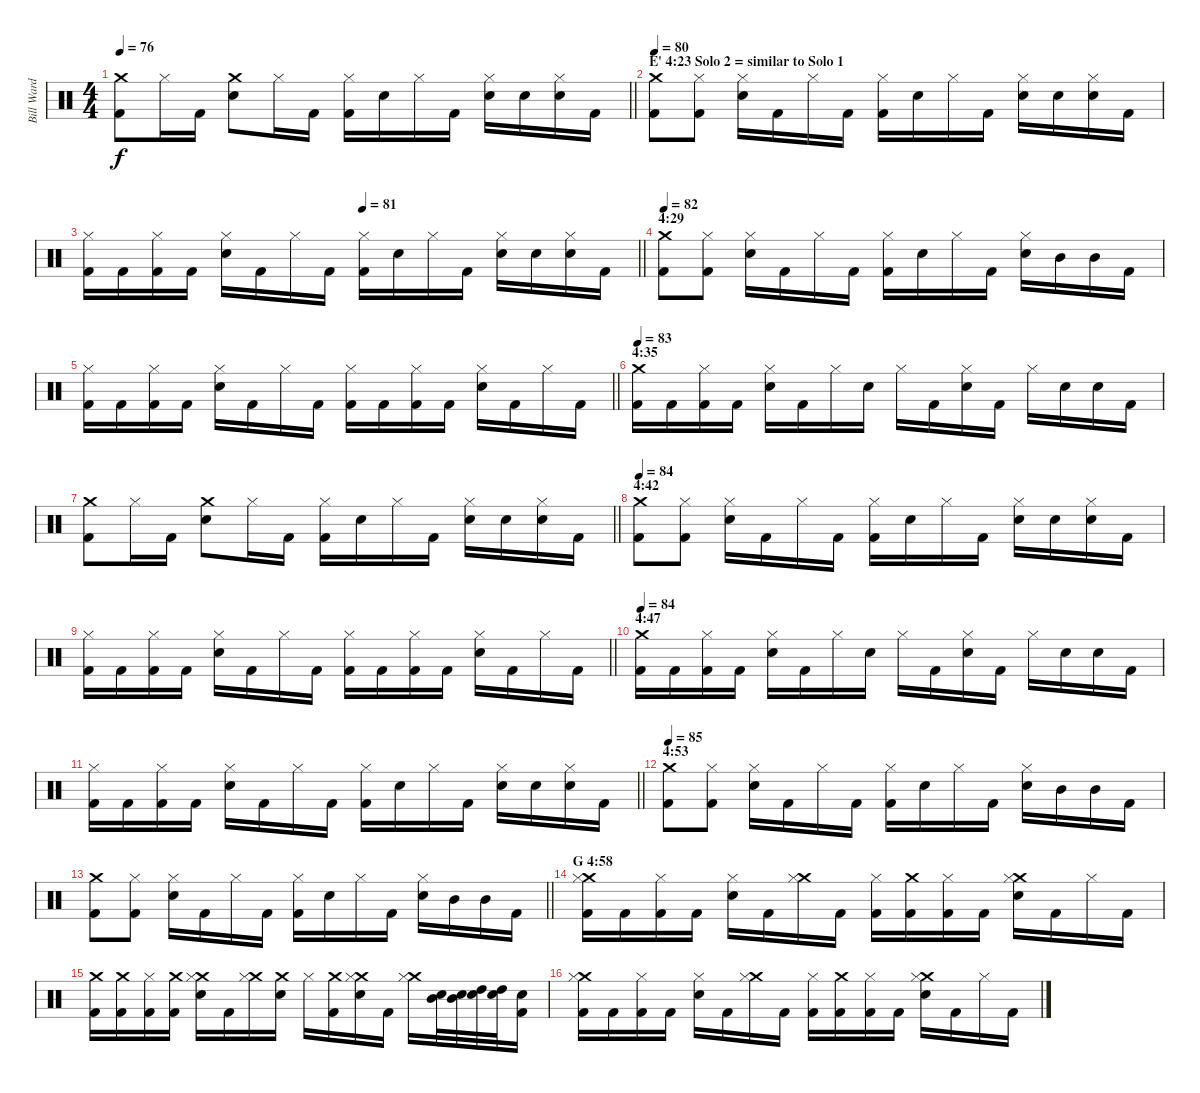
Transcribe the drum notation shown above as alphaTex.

\track ("Bill Ward (Drums)" "Bill Ward ") {instrument percussion}
\staff {score}
\articulation defaults
\ts (4 4)
\tempo 76
\clef neutral
\barLineRight lightlight
\ks c
("Crash medium (hit)" "Kick (hit) 2").8{dy f} "Hi-Hat (closed)".16 "Kick (hit) 2".16 ("Crash medium (hit)" "Snare (hit) 2").8 "Hi-Hat (closed)".16 "Kick (hit) 2".16 ("Hi-Hat (closed)" "Kick (hit) 2").16 "Snare (hit) 2".16 "Hi-Hat (closed)".16 "Kick (hit) 2".16 ("Hi-Hat (closed)" "Snare (hit) 2").16 "Snare (hit) 2".16 ("Hi-Hat (closed)" "Snare (hit) 2").16 "Kick (hit) 2".16 |
\section ("" "E' 4:23 Solo 2 = similar to Solo 1")
\tempo 80
("Crash medium (hit)" "Kick (hit) 2").8 ("Hi-Hat (closed)" "Kick (hit) 2").8 ("Hi-Hat (closed)" "Snare (hit) 2").16 "Kick (hit) 2".16 "Hi-Hat (closed)".16 "Kick (hit) 2".16 ("Hi-Hat (closed)" "Kick (hit) 2").16 "Snare (hit) 2".16 "Hi-Hat (closed)".16 "Kick (hit) 2".16 ("Hi-Hat (closed)" "Snare (hit) 2").16 "Snare (hit) 2".16 ("Hi-Hat (closed)" "Snare (hit) 2").16 "Kick (hit) 2".16 |
\tempo (81 0.5)
\barLineRight lightlight
("Hi-Hat (closed)" "Kick (hit) 2").16 "Kick (hit) 2".16 ("Hi-Hat (closed)" "Kick (hit) 2").16 "Kick (hit) 2".16 ("Hi-Hat (closed)" "Snare (hit) 2").16 "Kick (hit) 2".16 "Hi-Hat (closed)".16 "Kick (hit) 2".16 ("Hi-Hat (closed)" "Kick (hit) 2").16 "Snare (hit) 2".16 "Hi-Hat (closed)".16 "Kick (hit) 2".16 ("Hi-Hat (closed)" "Snare (hit) 2").16 "Snare (hit) 2".16 ("Hi-Hat (closed)" "Snare (hit) 2").16 "Kick (hit) 2".16 |
\section ("" "4:29")
\tempo 82
("Crash medium (hit)" "Kick (hit) 2").8 ("Hi-Hat (closed)" "Kick (hit) 2").8 ("Hi-Hat (closed)" "Snare (hit) 2").16 "Kick (hit) 2".16 "Hi-Hat (closed)".16 "Kick (hit) 2".16 ("Hi-Hat (closed)" "Kick (hit) 2").16 "Snare (hit) 2".16 "Hi-Hat (closed)".16 "Kick (hit) 2".16 ("Hi-Hat (closed)" "Snare (hit) 2").16 "Mid Tom (hit)".16 "Mid Tom (hit)".16 "Kick (hit) 2".16 |
\barLineRight lightlight
("Hi-Hat (closed)" "Kick (hit) 2").16 "Kick (hit) 2".16 ("Hi-Hat (closed)" "Kick (hit) 2").16 "Kick (hit) 2".16 ("Hi-Hat (closed)" "Snare (hit) 2").16 "Kick (hit) 2".16 "Hi-Hat (closed)".16 "Kick (hit) 2".16 ("Hi-Hat (closed)" "Kick (hit) 2").16 "Kick (hit) 2".16 ("Hi-Hat (closed)" "Kick (hit) 2").16 "Kick (hit) 2".16 ("Hi-Hat (closed)" "Snare (hit) 2").16 "Kick (hit) 2".16 "Hi-Hat (closed)".16 "Kick (hit) 2".16 |
\section ("" "4:35")
\tempo 83
("Crash medium (hit)" "Kick (hit) 2").16 "Kick (hit) 2".16 ("Hi-Hat (closed)" "Kick (hit) 2").16 "Kick (hit) 2".16 ("Hi-Hat (closed)" "Snare (hit) 2").16 "Kick (hit) 2".16 "Hi-Hat (closed)".16 "Snare (hit) 2".16 "Hi-Hat (closed)".16 "Kick (hit) 2".16 ("Hi-Hat (closed)" "Snare (hit) 2").16 "Kick (hit) 2".16 "Hi-Hat (closed)".16 "Snare (hit) 2".16 "Snare (hit) 2".16 "Kick (hit) 2".16 |
\barLineRight lightlight
("Crash medium (hit)" "Kick (hit) 2").8 "Hi-Hat (closed)".16 "Kick (hit) 2".16 ("Crash medium (hit)" "Snare (hit) 2").8 "Hi-Hat (closed)".16 "Kick (hit) 2".16 ("Hi-Hat (closed)" "Kick (hit) 2").16 "Snare (hit) 2".16 "Hi-Hat (closed)".16 "Kick (hit) 2".16 ("Hi-Hat (closed)" "Snare (hit) 2").16 "Snare (hit) 2".16 ("Hi-Hat (closed)" "Snare (hit) 2").16 "Kick (hit) 2".16 |
\section ("" "4:42")
\tempo 84
("Crash medium (hit)" "Kick (hit) 2").8 ("Hi-Hat (closed)" "Kick (hit) 2").8 ("Hi-Hat (closed)" "Snare (hit) 2").16 "Kick (hit) 2".16 "Hi-Hat (closed)".16 "Kick (hit) 2".16 ("Hi-Hat (closed)" "Kick (hit) 2").16 "Snare (hit) 2".16 "Hi-Hat (closed)".16 "Kick (hit) 2".16 ("Hi-Hat (closed)" "Snare (hit) 2").16 "Snare (hit) 2".16 ("Hi-Hat (closed)" "Snare (hit) 2").16 "Kick (hit) 2".16 |
\barLineRight lightlight
("Hi-Hat (closed)" "Kick (hit) 2").16 "Kick (hit) 2".16 ("Hi-Hat (closed)" "Kick (hit) 2").16 "Kick (hit) 2".16 ("Hi-Hat (closed)" "Snare (hit) 2").16 "Kick (hit) 2".16 "Hi-Hat (closed)".16 "Kick (hit) 2".16 ("Hi-Hat (closed)" "Kick (hit) 2").16 "Kick (hit) 2".16 ("Hi-Hat (closed)" "Kick (hit) 2").16 "Kick (hit) 2".16 ("Hi-Hat (closed)" "Snare (hit) 2").16 "Kick (hit) 2".16 "Hi-Hat (closed)".16 "Kick (hit) 2".16 |
\section ("" "4:47")
\tempo 84
("Crash medium (hit)" "Kick (hit) 2").16 "Kick (hit) 2".16 ("Hi-Hat (closed)" "Kick (hit) 2").16 "Kick (hit) 2".16 ("Hi-Hat (closed)" "Snare (hit) 2").16 "Kick (hit) 2".16 "Hi-Hat (closed)".16 "Snare (hit) 2".16 "Hi-Hat (closed)".16 "Kick (hit) 2".16 ("Hi-Hat (closed)" "Snare (hit) 2").16 "Kick (hit) 2".16 "Hi-Hat (closed)".16 "Snare (hit) 2".16 "Snare (hit) 2".16 "Kick (hit) 2".16 |
\barLineRight lightlight
("Hi-Hat (closed)" "Kick (hit) 2").16 "Kick (hit) 2".16 ("Hi-Hat (closed)" "Kick (hit) 2").16 "Kick (hit) 2".16 ("Hi-Hat (closed)" "Snare (hit) 2").16 "Kick (hit) 2".16 "Hi-Hat (closed)".16 "Kick (hit) 2".16 ("Hi-Hat (closed)" "Kick (hit) 2").16 "Snare (hit) 2".16 "Hi-Hat (closed)".16 "Kick (hit) 2".16 ("Hi-Hat (closed)" "Snare (hit) 2").16 "Snare (hit) 2".16 ("Hi-Hat (closed)" "Snare (hit) 2").16 "Kick (hit) 2".16 |
\section ("" "4:53")
\tempo 85
("Crash medium (hit)" "Kick (hit) 2").8 ("Hi-Hat (closed)" "Kick (hit) 2").8 ("Hi-Hat (closed)" "Snare (hit) 2").16 "Kick (hit) 2".16 "Hi-Hat (closed)".16 "Kick (hit) 2".16 ("Hi-Hat (closed)" "Kick (hit) 2").16 "Snare (hit) 2".16 "Hi-Hat (closed)".16 "Kick (hit) 2".16 ("Hi-Hat (closed)" "Snare (hit) 2").16 "Mid Tom (hit)".16 "Mid Tom (hit)".16 "Kick (hit) 2".16 |
\barLineRight lightlight
("Crash medium (hit)" "Kick (hit) 2").8 ("Hi-Hat (closed)" "Kick (hit) 2").8 ("Hi-Hat (closed)" "Snare (hit) 2").16 "Kick (hit) 2".16 "Hi-Hat (closed)".16 "Kick (hit) 2".16 ("Hi-Hat (closed)" "Kick (hit) 2").16 "Snare (hit) 2".16 "Hi-Hat (closed)".16 "Kick (hit) 2".16 ("Hi-Hat (closed)" "Snare (hit) 2").16 "Mid Tom (hit)".16 "Mid Tom (hit)".16 "Kick (hit) 2".16 |
\section ("" "G 4:58")
("Crash medium (hit)" "Hi-Hat (closed)" "Kick (hit) 2").16 "Kick (hit) 2".16 ("Hi-Hat (closed)" "Kick (hit) 2").16 "Kick (hit) 2".16 ("Hi-Hat (closed)" "Snare (hit) 2").16 "Kick (hit) 2".16 ("Crash medium (hit)" "Hi-Hat (closed)").16 "Kick (hit) 2".16 ("Hi-Hat (closed)" "Kick (hit) 2").16 ("Crash medium (hit)" "Kick (hit) 2").16 ("Hi-Hat (closed)" "Kick (hit) 2").16 "Kick (hit) 2".16 ("Crash medium (hit)" "Hi-Hat (closed)" "Snare (hit) 2").16 "Kick (hit) 2".16 "Hi-Hat (closed)".16 "Kick (hit) 2".16 |
("Crash medium (hit)" "Kick (hit) 2").16 ("Crash medium (hit)" "Kick (hit) 2").16 ("Hi-Hat (closed)" "Kick (hit) 2").16 ("Crash medium (hit)" "Kick (hit) 2").16 ("Crash medium (hit)" "Hi-Hat (closed)" "Snare (hit) 2").16 "Kick (hit) 2".16 ("Crash medium (hit)" "Hi-Hat (closed)").16 ("Crash medium (hit)" "Snare (hit) 2").16 "Hi-Hat (closed)".16 ("Crash medium (hit)" "Kick (hit) 2").16 ("Crash medium (hit)" "Hi-Hat (closed)" "Snare (hit) 2").16 "Kick (hit) 2".16 ("Crash medium (hit)" "Hi-Hat (closed)").16 ("Mid Tom (hit)" "Snare (hit) 2").32 ("Mid Tom (hit)" "Snare (hit) 2").32 ("High Tom (hit)" "Snare (hit) 2").32 ("High Tom (hit)" "Snare (hit) 2").32 ("Snare (hit) 2" "Kick (hit) 2").16 |
("Crash medium (hit)" "Hi-Hat (closed)" "Kick (hit) 2").16 "Kick (hit) 2".16 ("Hi-Hat (closed)" "Kick (hit) 2").16 "Kick (hit) 2".16 ("Hi-Hat (closed)" "Snare (hit) 2").16 "Kick (hit) 2".16 ("Crash medium (hit)" "Hi-Hat (closed)").16 "Kick (hit) 2".16 ("Hi-Hat (closed)" "Kick (hit) 2").16 ("Crash medium (hit)" "Kick (hit) 2").16 ("Hi-Hat (closed)" "Kick (hit) 2").16 "Kick (hit) 2".16 ("Crash medium (hit)" "Hi-Hat (closed)" "Snare (hit) 2").16 "Kick (hit) 2".16 "Hi-Hat (closed)".16 "Kick (hit) 2".16
